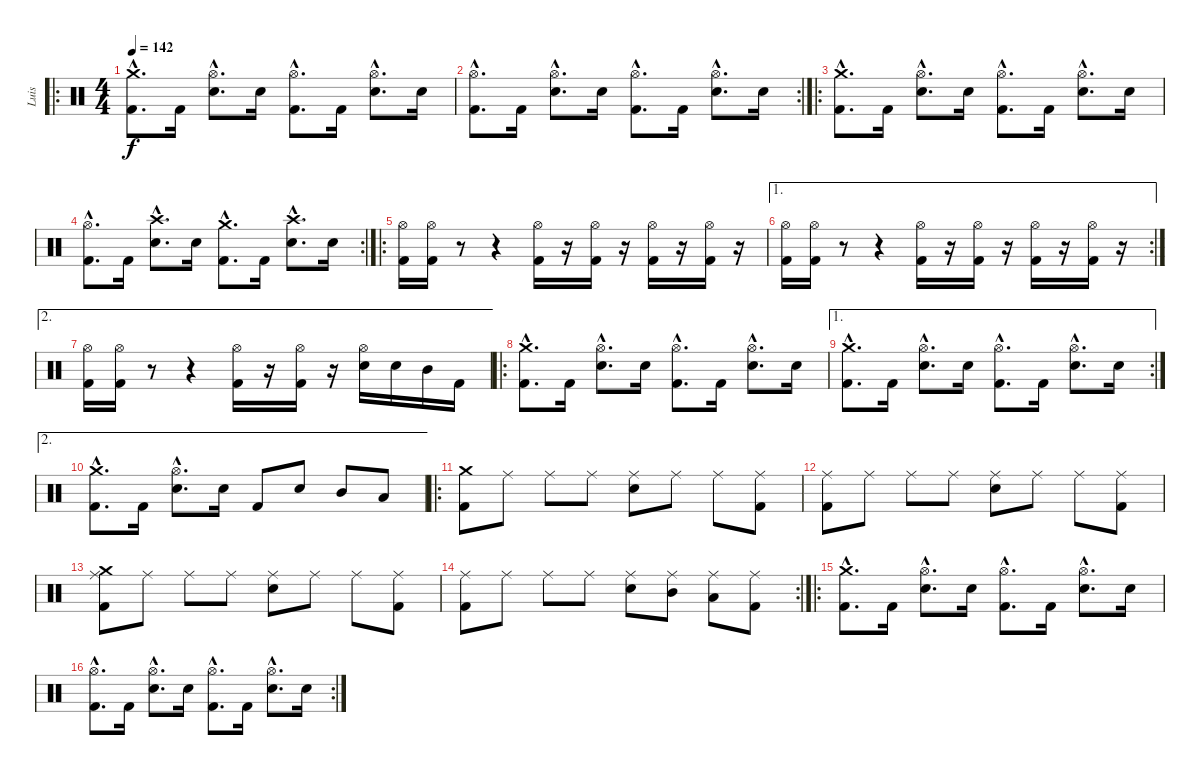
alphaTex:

\track ("Luis" "Luis") {instrument percussion}
\staff {score}
\articulation defaults
\ro
\ts (4 4)
\tempo 142
\clef neutral
\ks c
("Crash medium (hit)"{hac} "Kick (hit) 2"{hac}).8{d dy f} "Kick (hit) 2".16 ("Hi-Hat (open)"{hac} "Electric Snare (hit)"{hac}).8{d} "Electric Snare (hit)".16 ("Hi-Hat (open)"{hac} "Kick (hit) 2"{hac}).8{d} "Kick (hit) 2".16 ("Hi-Hat (open)"{hac} "Electric Snare (hit)"{hac}).8{d} "Electric Snare (hit)".16 |
\rc 2
("Hi-Hat (open)"{hac} "Kick (hit) 2"{hac}).8{d} "Kick (hit) 2".16 ("Hi-Hat (open)"{hac} "Electric Snare (hit)"{hac}).8{d} "Electric Snare (hit)".16 ("Hi-Hat (open)"{hac} "Kick (hit) 2"{hac}).8{d} "Kick (hit) 2".16 ("Hi-Hat (open)"{hac} "Electric Snare (hit)"{hac}).8{d} "Electric Snare (hit)".16 |
\ro
("Crash medium (hit)"{hac} "Kick (hit) 2"{hac}).8{d} "Kick (hit) 2".16 ("Hi-Hat (open)"{hac} "Electric Snare (hit)"{hac}).8{d} "Electric Snare (hit)".16 ("Hi-Hat (open)"{hac} "Kick (hit) 2"{hac}).8{d} "Kick (hit) 2".16 ("Hi-Hat (open)"{hac} "Electric Snare (hit)"{hac}).8{d} "Electric Snare (hit)".16 |
\rc 2
("Hi-Hat (open)"{hac} "Kick (hit) 2"{hac}).8{d} "Kick (hit) 2".16 ("Crash high (hit)"{hac} "Electric Snare (hit)"{hac}).8{d} "Electric Snare (hit)".16 ("Crash medium (hit)"{hac} "Kick (hit) 2"{hac}).8{d} "Kick (hit) 2".16 ("Crash high (hit)"{hac} "Electric Snare (hit)"{hac}).8{d} "Electric Snare (hit)".16 |
\ro
("Hi-Hat (open)" "Kick (hit) 2").16 ("Hi-Hat (open)" "Kick (hit) 2").16 r.8 r.4 ("Hi-Hat (open)" "Kick (hit) 2").16 r.16 ("Hi-Hat (open)" "Kick (hit) 2").16 r.16 ("Hi-Hat (open)" "Kick (hit) 2").16 r.16 ("Hi-Hat (open)" "Kick (hit) 2").16 r.16 |
\ae 1
\rc 2
("Hi-Hat (open)" "Kick (hit) 2").16 ("Hi-Hat (open)" "Kick (hit) 2").16 r.8 r.4 ("Hi-Hat (open)" "Kick (hit) 2").16 r.16 ("Hi-Hat (open)" "Kick (hit) 2").16 r.16 ("Hi-Hat (open)" "Kick (hit) 2").16 r.16 ("Hi-Hat (open)" "Kick (hit) 2").16 r.16 |
\ae 2
("Hi-Hat (open)" "Kick (hit) 2").16 ("Hi-Hat (open)" "Kick (hit) 2").16 r.8 r.4 ("Hi-Hat (open)" "Kick (hit) 2").16 r.16 ("Hi-Hat (open)" "Kick (hit) 2").16 r.16 ("Hi-Hat (open)" "Electric Snare (hit)").16 "Electric Snare (hit)".16 "Mid Tom (hit)".16 "Kick (hit) 2".16 |
\ro
("Crash medium (hit)"{hac} "Kick (hit) 2"{hac}).8{d} "Kick (hit) 2".16 ("Hi-Hat (open)"{hac} "Electric Snare (hit)"{hac}).8{d} "Electric Snare (hit)".16 ("Hi-Hat (open)"{hac} "Kick (hit) 2"{hac}).8{d} "Kick (hit) 2".16 ("Hi-Hat (open)"{hac} "Electric Snare (hit)"{hac}).8{d} "Electric Snare (hit)".16 |
\ae 1
\rc 2
("Crash medium (hit)"{hac} "Kick (hit) 2"{hac}).8{d} "Kick (hit) 2".16 ("Hi-Hat (open)"{hac} "Electric Snare (hit)"{hac}).8{d} "Electric Snare (hit)".16 ("Hi-Hat (open)"{hac} "Kick (hit) 2"{hac}).8{d} "Kick (hit) 2".16 ("Hi-Hat (open)"{hac} "Electric Snare (hit)"{hac}).8{d} "Electric Snare (hit)".16 |
\ae 2
("Crash medium (hit)"{hac} "Kick (hit) 2"{hac}).8{d} "Kick (hit) 2".16 ("Hi-Hat (open)"{hac} "Electric Snare (hit)"{hac}).8{d} "Electric Snare (hit)".16 "Kick (hit) 2".8 "Electric Snare (hit)".8 "Mid Tom (hit)".8 "Low Tom (hit)".8 |
\ro
("Crash medium (hit)" "Kick (hit) 2").8 "Ride (middle)".8 "Ride (middle)".8 "Ride (middle)".8 ("Ride (middle)" "Electric Snare (hit)").8 "Ride (middle)".8 "Ride (middle)".8 ("Ride (middle)" "Kick (hit) 2").8 |
("Ride (middle)" "Kick (hit) 2").8 "Ride (middle)".8 "Ride (middle)".8 "Ride (middle)".8 ("Ride (middle)" "Electric Snare (hit)").8 "Ride (middle)".8 "Ride (middle)".8 ("Ride (middle)" "Kick (hit) 2").8 |
("Crash medium (hit)" "Ride (middle)" "Kick (hit) 2").8 "Ride (middle)".8 "Ride (middle)".8 "Ride (middle)".8 ("Ride (middle)" "Electric Snare (hit)").8 "Ride (middle)".8 "Ride (middle)".8 ("Ride (middle)" "Kick (hit) 2").8 |
\rc 2
("Ride (middle)" "Kick (hit) 2").8 "Ride (middle)".8 "Ride (middle)".8 "Ride (middle)".8 ("Ride (middle)" "Electric Snare (hit)").8 ("Ride (middle)" "Mid Tom (hit)").8 ("Ride (middle)" "Low Tom (hit)").8 ("Ride (middle)" "Kick (hit) 2").8 |
\ro
("Crash medium (hit)"{hac} "Kick (hit) 2"{hac}).8{d} "Kick (hit) 2".16 ("Hi-Hat (open)"{hac} "Electric Snare (hit)"{hac}).8{d} "Electric Snare (hit)".16 ("Hi-Hat (open)"{hac} "Kick (hit) 2"{hac}).8{d} "Kick (hit) 2".16 ("Hi-Hat (open)"{hac} "Electric Snare (hit)"{hac}).8{d} "Electric Snare (hit)".16 |
\rc 2
("Hi-Hat (open)"{hac} "Kick (hit) 2"{hac}).8{d} "Kick (hit) 2".16 ("Hi-Hat (open)"{hac} "Electric Snare (hit)"{hac}).8{d} "Electric Snare (hit)".16 ("Hi-Hat (open)"{hac} "Kick (hit) 2"{hac}).8{d} "Kick (hit) 2".16 ("Hi-Hat (open)"{hac} "Electric Snare (hit)"{hac}).8{d} "Electric Snare (hit)".16
